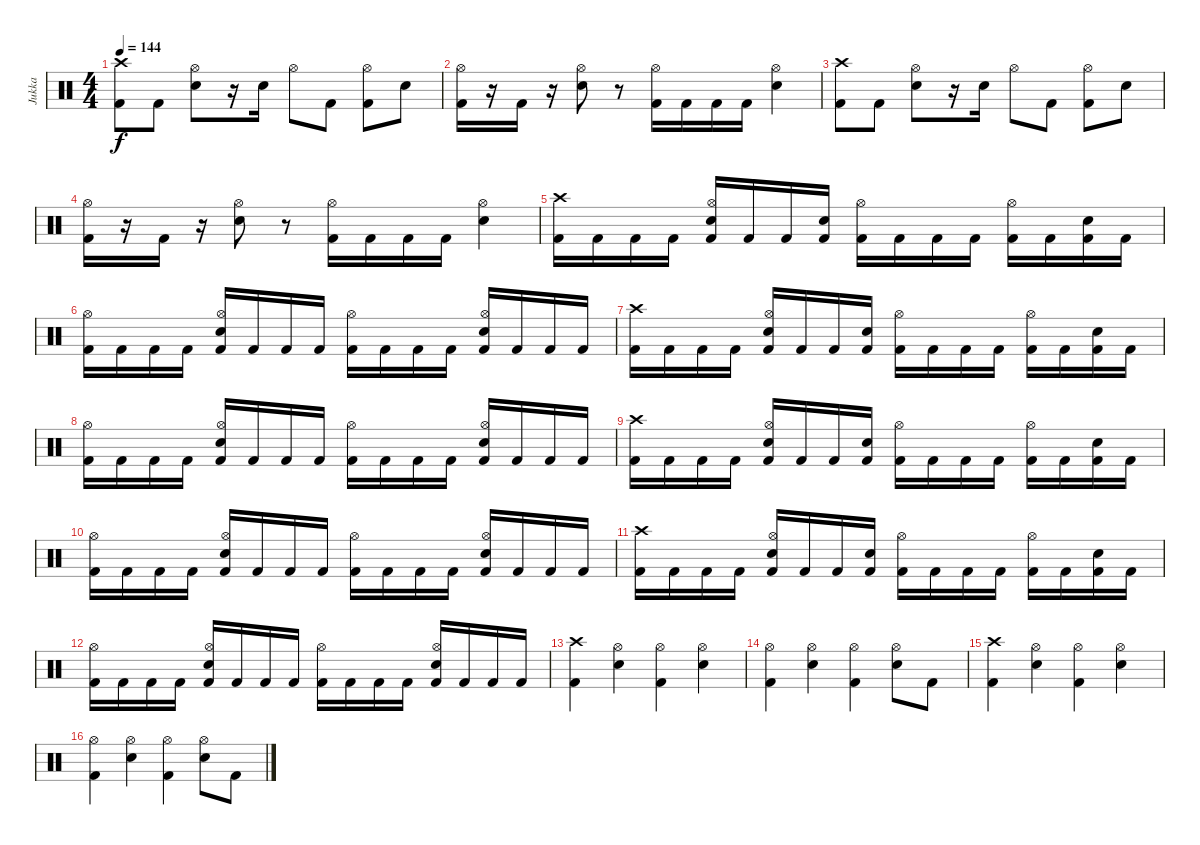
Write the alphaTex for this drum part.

\track ("Jukka" "Jukka") {instrument percussion}
\staff {score}
\articulation defaults
\ts (4 4)
\tempo 144
\clef neutral
\ks c
("Crash high (hit)" "Kick (hit) 2").8{dy f} "Kick (hit) 2".8 ("Hi-Hat (open)" "Electric Snare (hit)").8 r.16 "Electric Snare (hit)".16 "Hi-Hat (open)".8 "Kick (hit) 2".8 ("Hi-Hat (open)" "Kick (hit) 2").8 "Electric Snare (hit)".8 |
("Hi-Hat (open)" "Kick (hit) 2").16 r.16 "Kick (hit) 2".16 r.16 ("Hi-Hat (open)" "Electric Snare (hit)").8 r.8 ("Hi-Hat (open)" "Kick (hit) 2").16 "Kick (hit) 2".16 "Kick (hit) 2".16 "Kick (hit) 2".16 ("Hi-Hat (open)" "Electric Snare (hit)").4 |
("Crash high (hit)" "Kick (hit) 2").8 "Kick (hit) 2".8 ("Hi-Hat (open)" "Electric Snare (hit)").8 r.16 "Electric Snare (hit)".16 "Hi-Hat (open)".8 "Kick (hit) 2".8 ("Hi-Hat (open)" "Kick (hit) 2").8 "Electric Snare (hit)".8 |
("Hi-Hat (open)" "Kick (hit) 2").16 r.16 "Kick (hit) 2".16 r.16 ("Hi-Hat (open)" "Electric Snare (hit)").8 r.8 ("Hi-Hat (open)" "Kick (hit) 2").16 "Kick (hit) 2".16 "Kick (hit) 2".16 "Kick (hit) 2".16 ("Hi-Hat (open)" "Electric Snare (hit)").4 |
("Crash high (hit)" "Kick (hit) 2").16 "Kick (hit) 2".16 "Kick (hit) 2".16 "Kick (hit) 2".16 ("Hi-Hat (open)" "Electric Snare (hit)" "Kick (hit) 2").16 "Kick (hit) 2".16 "Kick (hit) 2".16 ("Electric Snare (hit)" "Kick (hit) 2").16 ("Hi-Hat (open)" "Kick (hit) 2").16 "Kick (hit) 2".16 "Kick (hit) 2".16 "Kick (hit) 2".16 ("Hi-Hat (open)" "Kick (hit) 2").16 "Kick (hit) 2".16 ("Electric Snare (hit)" "Kick (hit) 2").16 "Kick (hit) 2".16 |
("Hi-Hat (open)" "Kick (hit) 2").16 "Kick (hit) 2".16 "Kick (hit) 2".16 "Kick (hit) 2".16 ("Hi-Hat (open)" "Electric Snare (hit)" "Kick (hit) 2").16 "Kick (hit) 2".16 "Kick (hit) 2".16 "Kick (hit) 2".16 ("Hi-Hat (open)" "Kick (hit) 2").16 "Kick (hit) 2".16 "Kick (hit) 2".16 "Kick (hit) 2".16 ("Hi-Hat (open)" "Electric Snare (hit)" "Kick (hit) 2").16 "Kick (hit) 2".16 "Kick (hit) 2".16 "Kick (hit) 2".16 |
("Crash high (hit)" "Kick (hit) 2").16 "Kick (hit) 2".16 "Kick (hit) 2".16 "Kick (hit) 2".16 ("Hi-Hat (open)" "Electric Snare (hit)" "Kick (hit) 2").16 "Kick (hit) 2".16 "Kick (hit) 2".16 ("Electric Snare (hit)" "Kick (hit) 2").16 ("Hi-Hat (open)" "Kick (hit) 2").16 "Kick (hit) 2".16 "Kick (hit) 2".16 "Kick (hit) 2".16 ("Hi-Hat (open)" "Kick (hit) 2").16 "Kick (hit) 2".16 ("Electric Snare (hit)" "Kick (hit) 2").16 "Kick (hit) 2".16 |
("Hi-Hat (open)" "Kick (hit) 2").16 "Kick (hit) 2".16 "Kick (hit) 2".16 "Kick (hit) 2".16 ("Hi-Hat (open)" "Electric Snare (hit)" "Kick (hit) 2").16 "Kick (hit) 2".16 "Kick (hit) 2".16 "Kick (hit) 2".16 ("Hi-Hat (open)" "Kick (hit) 2").16 "Kick (hit) 2".16 "Kick (hit) 2".16 "Kick (hit) 2".16 ("Hi-Hat (open)" "Electric Snare (hit)" "Kick (hit) 2").16 "Kick (hit) 2".16 "Kick (hit) 2".16 "Kick (hit) 2".16 |
("Crash high (hit)" "Kick (hit) 2").16 "Kick (hit) 2".16 "Kick (hit) 2".16 "Kick (hit) 2".16 ("Hi-Hat (open)" "Electric Snare (hit)" "Kick (hit) 2").16 "Kick (hit) 2".16 "Kick (hit) 2".16 ("Electric Snare (hit)" "Kick (hit) 2").16 ("Hi-Hat (open)" "Kick (hit) 2").16 "Kick (hit) 2".16 "Kick (hit) 2".16 "Kick (hit) 2".16 ("Hi-Hat (open)" "Kick (hit) 2").16 "Kick (hit) 2".16 ("Electric Snare (hit)" "Kick (hit) 2").16 "Kick (hit) 2".16 |
("Hi-Hat (open)" "Kick (hit) 2").16 "Kick (hit) 2".16 "Kick (hit) 2".16 "Kick (hit) 2".16 ("Hi-Hat (open)" "Electric Snare (hit)" "Kick (hit) 2").16 "Kick (hit) 2".16 "Kick (hit) 2".16 "Kick (hit) 2".16 ("Hi-Hat (open)" "Kick (hit) 2").16 "Kick (hit) 2".16 "Kick (hit) 2".16 "Kick (hit) 2".16 ("Hi-Hat (open)" "Electric Snare (hit)" "Kick (hit) 2").16 "Kick (hit) 2".16 "Kick (hit) 2".16 "Kick (hit) 2".16 |
("Crash high (hit)" "Kick (hit) 2").16 "Kick (hit) 2".16 "Kick (hit) 2".16 "Kick (hit) 2".16 ("Hi-Hat (open)" "Electric Snare (hit)" "Kick (hit) 2").16 "Kick (hit) 2".16 "Kick (hit) 2".16 ("Electric Snare (hit)" "Kick (hit) 2").16 ("Hi-Hat (open)" "Kick (hit) 2").16 "Kick (hit) 2".16 "Kick (hit) 2".16 "Kick (hit) 2".16 ("Hi-Hat (open)" "Kick (hit) 2").16 "Kick (hit) 2".16 ("Electric Snare (hit)" "Kick (hit) 2").16 "Kick (hit) 2".16 |
("Hi-Hat (open)" "Kick (hit) 2").16 "Kick (hit) 2".16 "Kick (hit) 2".16 "Kick (hit) 2".16 ("Hi-Hat (open)" "Electric Snare (hit)" "Kick (hit) 2").16 "Kick (hit) 2".16 "Kick (hit) 2".16 "Kick (hit) 2".16 ("Hi-Hat (open)" "Kick (hit) 2").16 "Kick (hit) 2".16 "Kick (hit) 2".16 "Kick (hit) 2".16 ("Hi-Hat (open)" "Electric Snare (hit)" "Kick (hit) 2").16 "Kick (hit) 2".16 "Kick (hit) 2".16 "Kick (hit) 2".16 |
("Crash high (hit)" "Kick (hit) 2").4 ("Hi-Hat (open)" "Electric Snare (hit)").4 ("Hi-Hat (open)" "Kick (hit) 2").4 ("Hi-Hat (open)" "Electric Snare (hit)").4 |
("Hi-Hat (open)" "Kick (hit) 2").4 ("Hi-Hat (open)" "Electric Snare (hit)").4 ("Hi-Hat (open)" "Kick (hit) 2").4 ("Hi-Hat (open)" "Electric Snare (hit)").8 "Kick (hit) 2".8 |
("Crash high (hit)" "Kick (hit) 2").4 ("Hi-Hat (open)" "Electric Snare (hit)").4 ("Hi-Hat (open)" "Kick (hit) 2").4 ("Hi-Hat (open)" "Electric Snare (hit)").4 |
("Hi-Hat (open)" "Kick (hit) 2").4 ("Hi-Hat (open)" "Electric Snare (hit)").4 ("Hi-Hat (open)" "Kick (hit) 2").4 ("Hi-Hat (open)" "Electric Snare (hit)").8 "Kick (hit) 2".8
